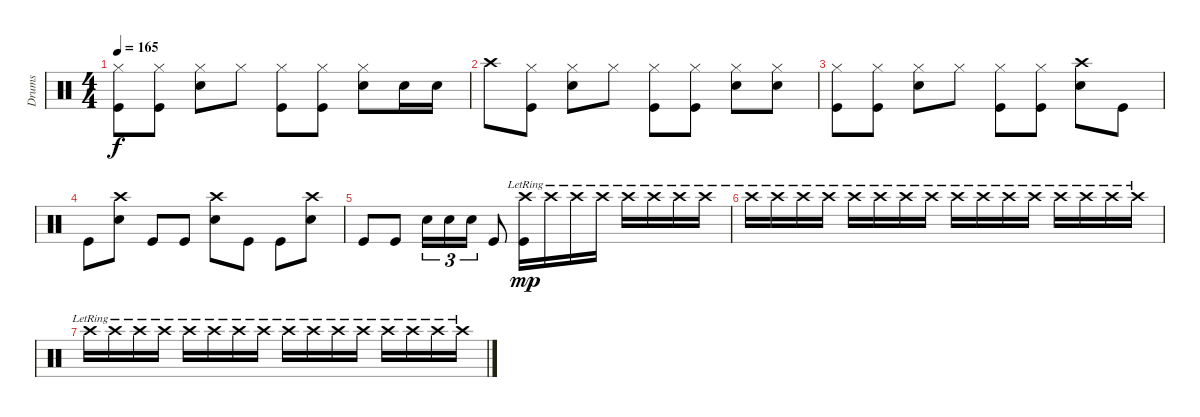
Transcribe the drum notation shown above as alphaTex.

\track ("Drums" "Drums") {instrument percussion}
\staff {score}
\articulation defaults
\ts (4 4)
\tempo 165
\clef neutral
\ks c
("Hi-Hat (closed)" "Kick (hit)").8{dy f} ("Hi-Hat (closed)" "Kick (hit)").8 ("Hi-Hat (closed)" "Snare (hit) 2").8 "Hi-Hat (closed)".8 ("Hi-Hat (closed)" "Kick (hit)").8 ("Hi-Hat (closed)" "Kick (hit)").8 ("Hi-Hat (closed)" "Snare (hit) 2").8 "Snare (hit) 2".16 "Snare (hit) 2".16 |
"Crash high (hit)".8 ("Hi-Hat (closed)" "Kick (hit)").8 ("Hi-Hat (closed)" "Snare (hit) 2").8 "Hi-Hat (closed)".8 ("Hi-Hat (closed)" "Kick (hit)").8 ("Hi-Hat (closed)" "Kick (hit)").8 ("Hi-Hat (closed)" "Snare (hit) 2").8 ("Hi-Hat (closed)" "Snare (hit) 2").8 |
("Hi-Hat (closed)" "Kick (hit)").8 ("Hi-Hat (closed)" "Kick (hit)").8 ("Hi-Hat (closed)" "Snare (hit) 2").8 "Hi-Hat (closed)".8 ("Hi-Hat (closed)" "Kick (hit)").8 ("Hi-Hat (closed)" "Kick (hit)").8 ("Crash high (hit)" "Snare (hit) 2").8 "Kick (hit)".8 |
"Kick (hit)".8 ("Crash high (hit)" "Snare (hit) 2").8 "Kick (hit)".8 "Kick (hit)".8 ("Crash high (hit)" "Snare (hit) 2").8 "Kick (hit)".8 "Kick (hit)".8 ("Crash high (hit)" "Snare (hit) 2").8 |
"Kick (hit)".8 "Kick (hit)".8 "Snare (hit) 2".16{tu (3 2)} "Snare (hit) 2".16{tu (3 2)} "Snare (hit) 2".16{tu (3 2)} "Kick (hit)".8 ("Crash high (hit)"{lr} "Kick (hit)").16{dy mp} "Crash high (hit)"{lr}.16 "Crash high (hit)"{lr}.16 "Crash high (hit)"{lr}.16 "Crash high (hit)"{lr}.16 "Crash high (hit)"{lr}.16 "Crash high (hit)"{lr}.16 "Crash high (hit)"{lr}.16 |
"Crash high (hit)"{lr}.16 "Crash high (hit)"{lr}.16 "Crash high (hit)"{lr}.16 "Crash high (hit)"{lr}.16 "Crash high (hit)"{lr}.16 "Crash high (hit)"{lr}.16 "Crash high (hit)"{lr}.16 "Crash high (hit)"{lr}.16 "Crash high (hit)"{lr}.16 "Crash high (hit)"{lr}.16 "Crash high (hit)"{lr}.16 "Crash high (hit)"{lr}.16 "Crash high (hit)"{lr}.16 "Crash high (hit)"{lr}.16 "Crash high (hit)"{lr}.16 "Crash high (hit)"{lr}.16 |
"Crash high (hit)"{lr}.16 "Crash high (hit)"{lr}.16 "Crash high (hit)"{lr}.16 "Crash high (hit)"{lr}.16 "Crash high (hit)"{lr}.16 "Crash high (hit)"{lr}.16 "Crash high (hit)"{lr}.16 "Crash high (hit)"{lr}.16 "Crash high (hit)"{lr}.16 "Crash high (hit)"{lr}.16 "Crash high (hit)"{lr}.16 "Crash high (hit)"{lr}.16 "Crash high (hit)"{lr}.16 "Crash high (hit)"{lr}.16 "Crash high (hit)"{lr}.16 "Crash high (hit)"{lr}.16
